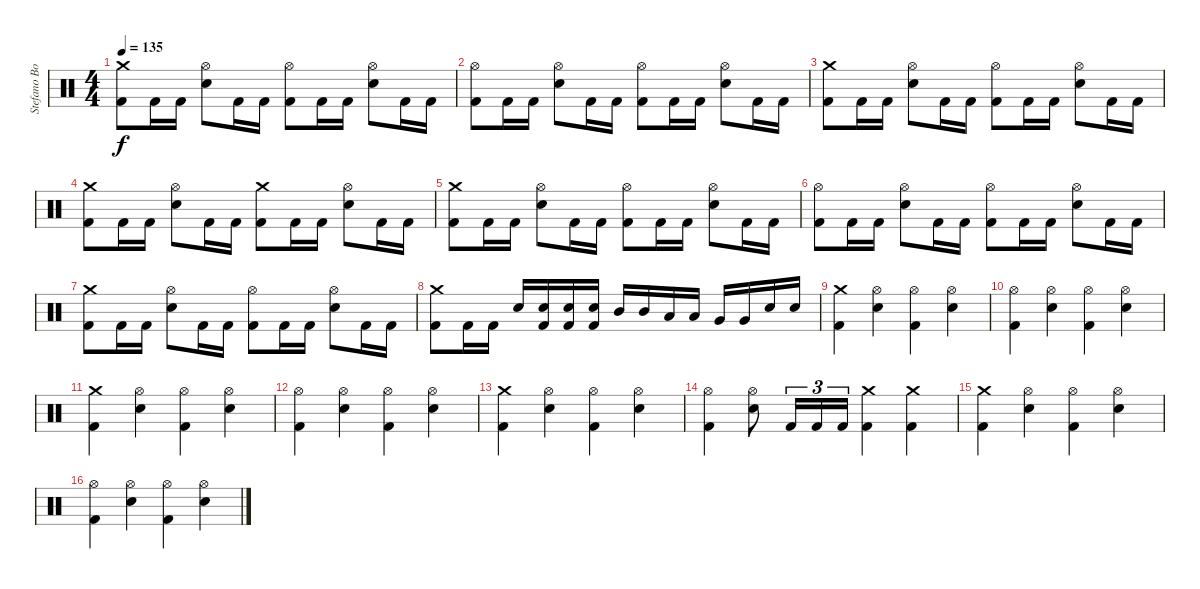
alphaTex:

\track ("Stefano Bonini" "Stefano Bo") {instrument percussion}
\staff {score}
\articulation defaults
\ts (4 4)
\tempo 135
\clef neutral
\ks c
("Crash medium (hit)" "Kick (hit) 2").8{dy f} "Kick (hit) 2".16 "Kick (hit) 2".16 ("Hi-Hat (open)" "Electric Snare (hit)").8 "Kick (hit) 2".16 "Kick (hit) 2".16 ("Hi-Hat (open)" "Kick (hit) 2").8 "Kick (hit) 2".16 "Kick (hit) 2".16 ("Hi-Hat (open)" "Electric Snare (hit)").8 "Kick (hit) 2".16 "Kick (hit) 2".16 |
("Hi-Hat (open)" "Kick (hit) 2").8 "Kick (hit) 2".16 "Kick (hit) 2".16 ("Hi-Hat (open)" "Electric Snare (hit)").8 "Kick (hit) 2".16 "Kick (hit) 2".16 ("Hi-Hat (open)" "Kick (hit) 2").8 "Kick (hit) 2".16 "Kick (hit) 2".16 ("Hi-Hat (open)" "Electric Snare (hit)").8 "Kick (hit) 2".16 "Kick (hit) 2".16 |
("Crash medium (hit)" "Kick (hit) 2").8 "Kick (hit) 2".16 "Kick (hit) 2".16 ("Hi-Hat (open)" "Electric Snare (hit)").8 "Kick (hit) 2".16 "Kick (hit) 2".16 ("Hi-Hat (open)" "Kick (hit) 2").8 "Kick (hit) 2".16 "Kick (hit) 2".16 ("Hi-Hat (open)" "Electric Snare (hit)").8 "Kick (hit) 2".16 "Kick (hit) 2".16 |
("Crash medium (hit)" "Kick (hit) 2").8 "Kick (hit) 2".16 "Kick (hit) 2".16 ("Hi-Hat (open)" "Electric Snare (hit)").8 "Kick (hit) 2".16 "Kick (hit) 2".16 ("Crash medium (hit)" "Kick (hit) 2").8 "Kick (hit) 2".16 "Kick (hit) 2".16 ("Hi-Hat (open)" "Electric Snare (hit)").8 "Kick (hit) 2".16 "Kick (hit) 2".16 |
("Crash medium (hit)" "Kick (hit) 2").8 "Kick (hit) 2".16 "Kick (hit) 2".16 ("Hi-Hat (open)" "Electric Snare (hit)").8 "Kick (hit) 2".16 "Kick (hit) 2".16 ("Hi-Hat (open)" "Kick (hit) 2").8 "Kick (hit) 2".16 "Kick (hit) 2".16 ("Hi-Hat (open)" "Electric Snare (hit)").8 "Kick (hit) 2".16 "Kick (hit) 2".16 |
("Hi-Hat (open)" "Kick (hit) 2").8 "Kick (hit) 2".16 "Kick (hit) 2".16 ("Hi-Hat (open)" "Electric Snare (hit)").8 "Kick (hit) 2".16 "Kick (hit) 2".16 ("Hi-Hat (open)" "Kick (hit) 2").8 "Kick (hit) 2".16 "Kick (hit) 2".16 ("Hi-Hat (open)" "Electric Snare (hit)").8 "Kick (hit) 2".16 "Kick (hit) 2".16 |
("Crash medium (hit)" "Kick (hit) 2").8 "Kick (hit) 2".16 "Kick (hit) 2".16 ("Hi-Hat (open)" "Electric Snare (hit)").8 "Kick (hit) 2".16 "Kick (hit) 2".16 ("Hi-Hat (open)" "Kick (hit) 2").8 "Kick (hit) 2".16 "Kick (hit) 2".16 ("Hi-Hat (open)" "Electric Snare (hit)").8 "Kick (hit) 2".16 "Kick (hit) 2".16 |
("Crash medium (hit)" "Kick (hit) 2").8 "Kick (hit) 2".16 "Kick (hit) 2".16 "Electric Snare (hit)".16 ("Electric Snare (hit)" "Kick (hit) 2").16 ("Electric Snare (hit)" "Kick (hit) 2").16 ("Electric Snare (hit)" "Kick (hit) 2").16 "Mid Tom (hit)".16 "Mid Tom (hit)".16 "Low Tom (hit)".16 "Low Tom (hit)".16 "Very Low Tom (hit)".16 "Very Low Tom (hit)".16 "Electric Snare (hit)".16 "Electric Snare (hit)".16 |
("Crash medium (hit)" "Kick (hit) 2").4 ("Hi-Hat (open)" "Electric Snare (hit)").4 ("Hi-Hat (open)" "Kick (hit) 2").4 ("Hi-Hat (open)" "Electric Snare (hit)").4 |
("Hi-Hat (open)" "Kick (hit) 2").4 ("Hi-Hat (open)" "Electric Snare (hit)").4 ("Hi-Hat (open)" "Kick (hit) 2").4 ("Hi-Hat (open)" "Electric Snare (hit)").4 |
("Crash medium (hit)" "Kick (hit) 2").4 ("Hi-Hat (open)" "Electric Snare (hit)").4 ("Hi-Hat (open)" "Kick (hit) 2").4 ("Hi-Hat (open)" "Electric Snare (hit)").4 |
("Hi-Hat (open)" "Kick (hit) 2").4 ("Hi-Hat (open)" "Electric Snare (hit)").4 ("Hi-Hat (open)" "Kick (hit) 2").4 ("Hi-Hat (open)" "Electric Snare (hit)").4 |
("Crash medium (hit)" "Kick (hit) 2").4 ("Hi-Hat (open)" "Electric Snare (hit)").4 ("Hi-Hat (open)" "Kick (hit) 2").4 ("Hi-Hat (open)" "Electric Snare (hit)").4 |
("Hi-Hat (open)" "Kick (hit) 2").4 ("Hi-Hat (open)" "Electric Snare (hit)").8 "Kick (hit) 2".16{tu (3 2)} "Kick (hit) 2".16{tu (3 2)} "Kick (hit) 2".16{tu (3 2)} ("Crash medium (hit)" "Kick (hit) 2").4 ("Crash medium (hit)" "Kick (hit) 2").4 |
("Crash medium (hit)" "Kick (hit) 2").4 ("Hi-Hat (open)" "Electric Snare (hit)").4 ("Hi-Hat (open)" "Kick (hit) 2").4 ("Hi-Hat (open)" "Electric Snare (hit)").4 |
("Hi-Hat (open)" "Kick (hit) 2").4 ("Hi-Hat (open)" "Electric Snare (hit)").4 ("Hi-Hat (open)" "Kick (hit) 2").4 ("Hi-Hat (open)" "Electric Snare (hit)").4
